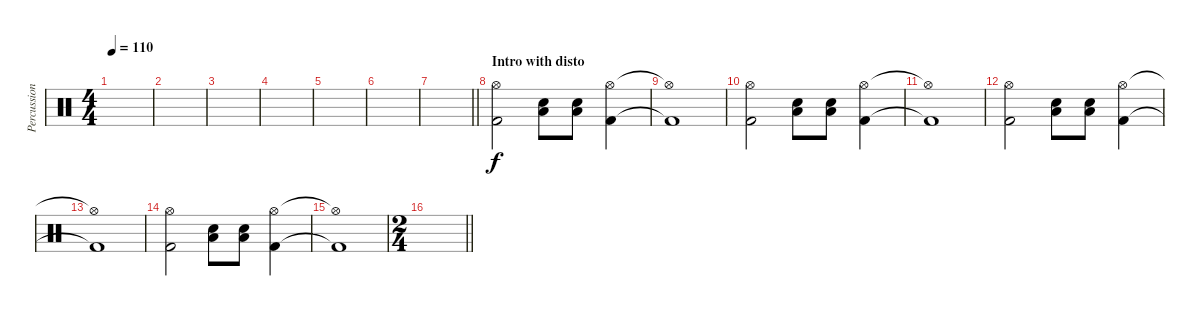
\track ("Percussions" "Percussion") {instrument percussion}
\staff {score}
\articulation defaults
\ts (4 4)
\tempo 110
\clef neutral
\ks c
|
|
|
|
|
|
\barLineRight lightlight
|
\section ("" "Intro with disto")
("Hi-Hat (open)" "Kick (hit) 2").2 ("Low Floor Tom (hit)" "Electric Snare (hit)").8 ("Low Floor Tom (hit)" "Electric Snare (hit)").8 ("Hi-Hat (open)" "Kick (hit) 2").4 |
("Hi-Hat (open)"{t} "Kick (hit) 2"{t}).1 |
("Hi-Hat (open)" "Kick (hit) 2").2 ("Low Floor Tom (hit)" "Electric Snare (hit)").8 ("Low Floor Tom (hit)" "Electric Snare (hit)").8 ("Hi-Hat (open)" "Kick (hit) 2").4 |
("Hi-Hat (open)"{t} "Kick (hit) 2"{t}).1 |
("Hi-Hat (open)" "Kick (hit) 2").2 ("Low Floor Tom (hit)" "Electric Snare (hit)").8 ("Low Floor Tom (hit)" "Electric Snare (hit)").8 ("Hi-Hat (open)" "Kick (hit) 2").4 |
("Hi-Hat (open)"{t} "Kick (hit) 2"{t}).1 |
("Hi-Hat (open)" "Kick (hit) 2").2 ("Low Floor Tom (hit)" "Electric Snare (hit)").8 ("Low Floor Tom (hit)" "Electric Snare (hit)").8 ("Hi-Hat (open)" "Kick (hit) 2").4 |
("Hi-Hat (open)"{t} "Kick (hit) 2"{t}).1 |
\ts (2 4)
\barLineRight lightlight
